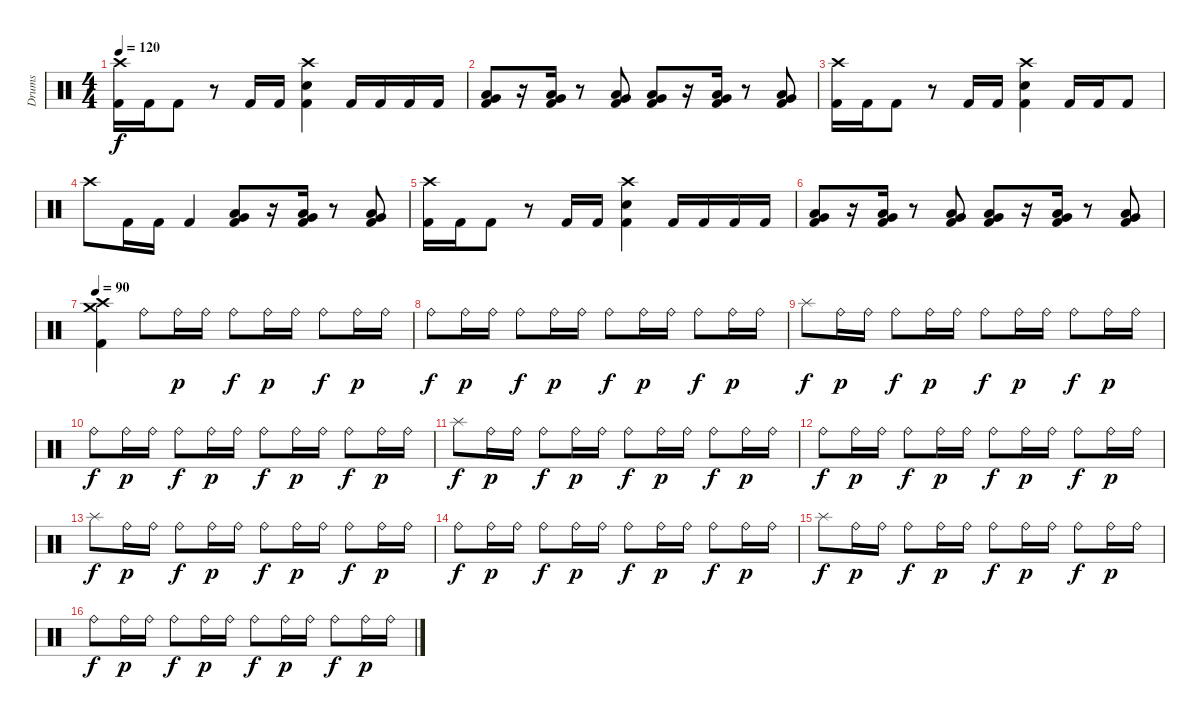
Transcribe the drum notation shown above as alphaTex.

\track ("Drums" "Drums") {instrument percussion}
\staff {score}
\articulation defaults
\ts (4 4)
\tempo 120
\clef neutral
\ks c
("Crash high (hit)" "Kick (hit) 2").16{dy f} "Kick (hit) 2".16 "Kick (hit) 2".8 r.8 "Kick (hit) 2".16 "Kick (hit) 2".16 ("Crash high (hit)" "Electric Snare (hit)" "Kick (hit) 2").4 "Kick (hit) 2".16 "Kick (hit) 2".16 "Kick (hit) 2".16 "Kick (hit) 2".16 |
("Low Tom (hit)" "Very Low Tom (hit)" "Kick (hit) 2").8 r.16 ("Low Tom (hit)" "Very Low Tom (hit)" "Kick (hit) 2").16 r.8 ("Low Tom (hit)" "Very Low Tom (hit)" "Kick (hit) 2").8 ("Very Low Tom (hit)" "Low Floor Tom (hit)" "Kick (hit) 2").8 r.16 ("Very Low Tom (hit)" "Low Floor Tom (hit)" "Kick (hit) 2").16 r.8 ("Very Low Tom (hit)" "Low Floor Tom (hit)" "Kick (hit) 2").8 |
("Crash high (hit)" "Kick (hit) 2").16 "Kick (hit) 2".16 "Kick (hit) 2".8 r.8 "Kick (hit) 2".16 "Kick (hit) 2".16 ("Crash high (hit)" "Electric Snare (hit)" "Kick (hit) 2").4 "Kick (hit) 2".16 "Kick (hit) 2".16 "Kick (hit) 2".8 |
"Crash high (hit)".8 "Kick (hit) 2".16 "Kick (hit) 2".16 "Kick (hit) 2".4 ("Very Low Tom (hit)" "Low Floor Tom (hit)" "Kick (hit) 2").8 r.16 ("Very Low Tom (hit)" "Low Floor Tom (hit)" "Kick (hit) 2").16 r.8 ("Very Low Tom (hit)" "Low Floor Tom (hit)" "Kick (hit) 2").8 |
("Crash high (hit)" "Kick (hit) 2").16 "Kick (hit) 2".16 "Kick (hit) 2".8 r.8 "Kick (hit) 2".16 "Kick (hit) 2".16 ("Crash high (hit)" "Electric Snare (hit)" "Kick (hit) 2").4 "Kick (hit) 2".16 "Kick (hit) 2".16 "Kick (hit) 2".16 "Kick (hit) 2".16 |
("Low Tom (hit)" "Very Low Tom (hit)" "Kick (hit) 2").8 r.16 ("Low Tom (hit)" "Very Low Tom (hit)" "Kick (hit) 2").16 r.8 ("Low Tom (hit)" "Very Low Tom (hit)" "Kick (hit) 2").8 ("Very Low Tom (hit)" "Low Floor Tom (hit)" "Kick (hit) 2").8 r.16 ("Very Low Tom (hit)" "Low Floor Tom (hit)" "Kick (hit) 2").16 r.8 ("Very Low Tom (hit)" "Low Floor Tom (hit)" "Kick (hit) 2").8 |
\tempo 90
("Crash high (hit)" "Crash medium (hit)" "Kick (hit) 2").4 "Ride (bell)".8 "Ride (bell)".16{dy p} "Ride (bell)".16 "Ride (bell)".8{dy f} "Ride (bell)".16{dy p} "Ride (bell)".16 "Ride (bell)".8{dy f} "Ride (bell)".16{dy p} "Ride (bell)".16 |
"Ride (bell)".8{dy f} "Ride (bell)".16{dy p} "Ride (bell)".16 "Ride (bell)".8{dy f} "Ride (bell)".16{dy p} "Ride (bell)".16 "Ride (bell)".8{dy f} "Ride (bell)".16{dy p} "Ride (bell)".16 "Ride (bell)".8{dy f} "Ride (bell)".16{dy p} "Ride (bell)".16 |
"Splash (hit)".8{dy f} "Ride (bell)".16{dy p} "Ride (bell)".16 "Ride (bell)".8{dy f} "Ride (bell)".16{dy p} "Ride (bell)".16 "Ride (bell)".8{dy f} "Ride (bell)".16{dy p} "Ride (bell)".16 "Ride (bell)".8{dy f} "Ride (bell)".16{dy p} "Ride (bell)".16 |
"Ride (bell)".8{dy f} "Ride (bell)".16{dy p} "Ride (bell)".16 "Ride (bell)".8{dy f} "Ride (bell)".16{dy p} "Ride (bell)".16 "Ride (bell)".8{dy f} "Ride (bell)".16{dy p} "Ride (bell)".16 "Ride (bell)".8{dy f} "Ride (bell)".16{dy p} "Ride (bell)".16 |
"Splash (hit)".8{dy f} "Ride (bell)".16{dy p} "Ride (bell)".16 "Ride (bell)".8{dy f} "Ride (bell)".16{dy p} "Ride (bell)".16 "Ride (bell)".8{dy f} "Ride (bell)".16{dy p} "Ride (bell)".16 "Ride (bell)".8{dy f} "Ride (bell)".16{dy p} "Ride (bell)".16 |
"Ride (bell)".8{dy f} "Ride (bell)".16{dy p} "Ride (bell)".16 "Ride (bell)".8{dy f} "Ride (bell)".16{dy p} "Ride (bell)".16 "Ride (bell)".8{dy f} "Ride (bell)".16{dy p} "Ride (bell)".16 "Ride (bell)".8{dy f} "Ride (bell)".16{dy p} "Ride (bell)".16 |
"Splash (hit)".8{dy f} "Ride (bell)".16{dy p} "Ride (bell)".16 "Ride (bell)".8{dy f} "Ride (bell)".16{dy p} "Ride (bell)".16 "Ride (bell)".8{dy f} "Ride (bell)".16{dy p} "Ride (bell)".16 "Ride (bell)".8{dy f} "Ride (bell)".16{dy p} "Ride (bell)".16 |
"Ride (bell)".8{dy f} "Ride (bell)".16{dy p} "Ride (bell)".16 "Ride (bell)".8{dy f} "Ride (bell)".16{dy p} "Ride (bell)".16 "Ride (bell)".8{dy f} "Ride (bell)".16{dy p} "Ride (bell)".16 "Ride (bell)".8{dy f} "Ride (bell)".16{dy p} "Ride (bell)".16 |
"Splash (hit)".8{dy f} "Ride (bell)".16{dy p} "Ride (bell)".16 "Ride (bell)".8{dy f} "Ride (bell)".16{dy p} "Ride (bell)".16 "Ride (bell)".8{dy f} "Ride (bell)".16{dy p} "Ride (bell)".16 "Ride (bell)".8{dy f} "Ride (bell)".16{dy p} "Ride (bell)".16 |
"Ride (bell)".8{dy f} "Ride (bell)".16{dy p} "Ride (bell)".16 "Ride (bell)".8{dy f} "Ride (bell)".16{dy p} "Ride (bell)".16 "Ride (bell)".8{dy f} "Ride (bell)".16{dy p} "Ride (bell)".16 "Ride (bell)".8{dy f} "Ride (bell)".16{dy p} "Ride (bell)".16
